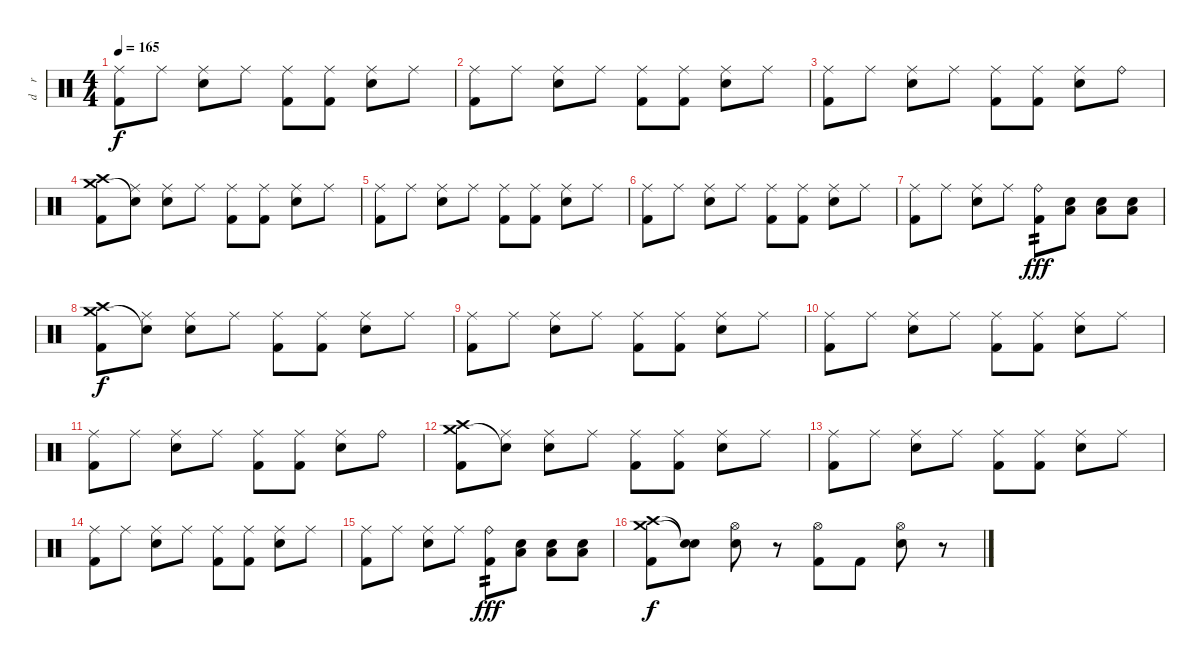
\track ("d    r    u    m    s" "d    r    ") {instrument percussion}
\staff {score}
\articulation defaults
\ts (4 4)
\tempo 165
\clef neutral
\ks c
("Ride (middle)" "Kick (hit) 2").8{dy f} "Ride (middle)".8 ("Ride (middle)" "Electric Snare (hit)").8 "Ride (middle)".8 ("Ride (middle)" "Kick (hit) 2").8 ("Ride (middle)" "Kick (hit) 2").8 ("Ride (middle)" "Electric Snare (hit)").8 "Ride (middle)".8 |
("Ride (middle)" "Kick (hit) 2").8 "Ride (middle)".8 ("Ride (middle)" "Electric Snare (hit)").8 "Ride (middle)".8 ("Ride (middle)" "Kick (hit) 2").8 ("Ride (middle)" "Kick (hit) 2").8 ("Ride (middle)" "Electric Snare (hit)").8 "Ride (middle)".8 |
("Ride (middle)" "Kick (hit) 2").8 "Ride (middle)".8 ("Ride (middle)" "Electric Snare (hit)").8 "Ride (middle)".8 ("Ride (middle)" "Kick (hit) 2").8 ("Ride (middle)" "Kick (hit) 2").8 ("Ride (middle)" "Electric Snare (hit)").8 "Ride (bell)".8 |
("Crash high (hit)" "Crash medium (hit)" "Kick (hit) 2").8 ("Ride (middle)" "Snare (hit)"{t}).8 ("Ride (middle)" "Electric Snare (hit)").8 "Ride (middle)".8 ("Ride (middle)" "Kick (hit) 2").8 ("Ride (middle)" "Kick (hit) 2").8 ("Ride (middle)" "Electric Snare (hit)").8 "Ride (middle)".8 |
("Ride (middle)" "Kick (hit) 2").8 "Ride (middle)".8 ("Ride (middle)" "Electric Snare (hit)").8 "Ride (middle)".8 ("Ride (middle)" "Kick (hit) 2").8 ("Ride (middle)" "Kick (hit) 2").8 ("Ride (middle)" "Electric Snare (hit)").8 "Ride (middle)".8 |
("Ride (middle)" "Kick (hit) 2").8 "Ride (middle)".8 ("Ride (middle)" "Electric Snare (hit)").8 "Ride (middle)".8 ("Ride (middle)" "Kick (hit) 2").8 ("Ride (middle)" "Kick (hit) 2").8 ("Ride (middle)" "Electric Snare (hit)").8 "Ride (middle)".8 |
("Ride (middle)" "Kick (hit) 2").8 "Ride (middle)".8 ("Ride (middle)" "Electric Snare (hit)").8 "Ride (middle)".8 ("Ride (bell)" "Kick (hit) 2").8{tp 2 dy fff} ("Low Floor Tom (hit)" "Electric Snare (hit)").8 ("Low Floor Tom (hit)" "Electric Snare (hit)").8 ("Low Floor Tom (hit)" "Electric Snare (hit)").8 |
("Crash high (hit)" "Crash medium (hit)" "Kick (hit) 2").8{dy f} ("Ride (middle)" "Snare (hit)"{t}).8 ("Ride (middle)" "Electric Snare (hit)").8 "Ride (middle)".8 ("Ride (middle)" "Kick (hit) 2").8 ("Ride (middle)" "Kick (hit) 2").8 ("Ride (middle)" "Electric Snare (hit)").8 "Ride (middle)".8 |
("Ride (middle)" "Kick (hit) 2").8 "Ride (middle)".8 ("Ride (middle)" "Electric Snare (hit)").8 "Ride (middle)".8 ("Ride (middle)" "Kick (hit) 2").8 ("Ride (middle)" "Kick (hit) 2").8 ("Ride (middle)" "Electric Snare (hit)").8 "Ride (middle)".8 |
("Ride (middle)" "Kick (hit) 2").8 "Ride (middle)".8 ("Ride (middle)" "Electric Snare (hit)").8 "Ride (middle)".8 ("Ride (middle)" "Kick (hit) 2").8 ("Ride (middle)" "Kick (hit) 2").8 ("Ride (middle)" "Electric Snare (hit)").8 "Ride (middle)".8 |
("Ride (middle)" "Kick (hit) 2").8 "Ride (middle)".8 ("Ride (middle)" "Electric Snare (hit)").8 "Ride (middle)".8 ("Ride (middle)" "Kick (hit) 2").8 ("Ride (middle)" "Kick (hit) 2").8 ("Ride (middle)" "Electric Snare (hit)").8 "Ride (bell)".8 |
("Crash high (hit)" "Crash medium (hit)" "Kick (hit) 2").8 ("Ride (middle)" "Snare (hit)"{t}).8 ("Ride (middle)" "Electric Snare (hit)").8 "Ride (middle)".8 ("Ride (middle)" "Kick (hit) 2").8 ("Ride (middle)" "Kick (hit) 2").8 ("Ride (middle)" "Electric Snare (hit)").8 "Ride (middle)".8 |
("Ride (middle)" "Kick (hit) 2").8 "Ride (middle)".8 ("Ride (middle)" "Electric Snare (hit)").8 "Ride (middle)".8 ("Ride (middle)" "Kick (hit) 2").8 ("Ride (middle)" "Kick (hit) 2").8 ("Ride (middle)" "Electric Snare (hit)").8 "Ride (middle)".8 |
("Ride (middle)" "Kick (hit) 2").8 "Ride (middle)".8 ("Ride (middle)" "Electric Snare (hit)").8 "Ride (middle)".8 ("Ride (middle)" "Kick (hit) 2").8 ("Ride (middle)" "Kick (hit) 2").8 ("Ride (middle)" "Electric Snare (hit)").8 "Ride (middle)".8 |
("Ride (middle)" "Kick (hit) 2").8 "Ride (middle)".8 ("Ride (middle)" "Electric Snare (hit)").8 "Ride (middle)".8 ("Ride (bell)" "Kick (hit) 2").8{tp 2 dy fff} ("Low Floor Tom (hit)" "Electric Snare (hit)").8 ("Low Floor Tom (hit)" "Electric Snare (hit)").8 ("Low Floor Tom (hit)" "Electric Snare (hit)").8 |
("Crash high (hit)" "Crash medium (hit)" "Kick (hit) 2").8{dy f} ("Snare (hit)"{t} "Snare (hit)"{t}).8 ("Hi-Hat (open)" "Electric Snare (hit)").8 r.8 ("Hi-Hat (open)" "Kick (hit) 2").8 "Kick (hit) 2".8 ("Hi-Hat (open)" "Electric Snare (hit)").8 r.8
